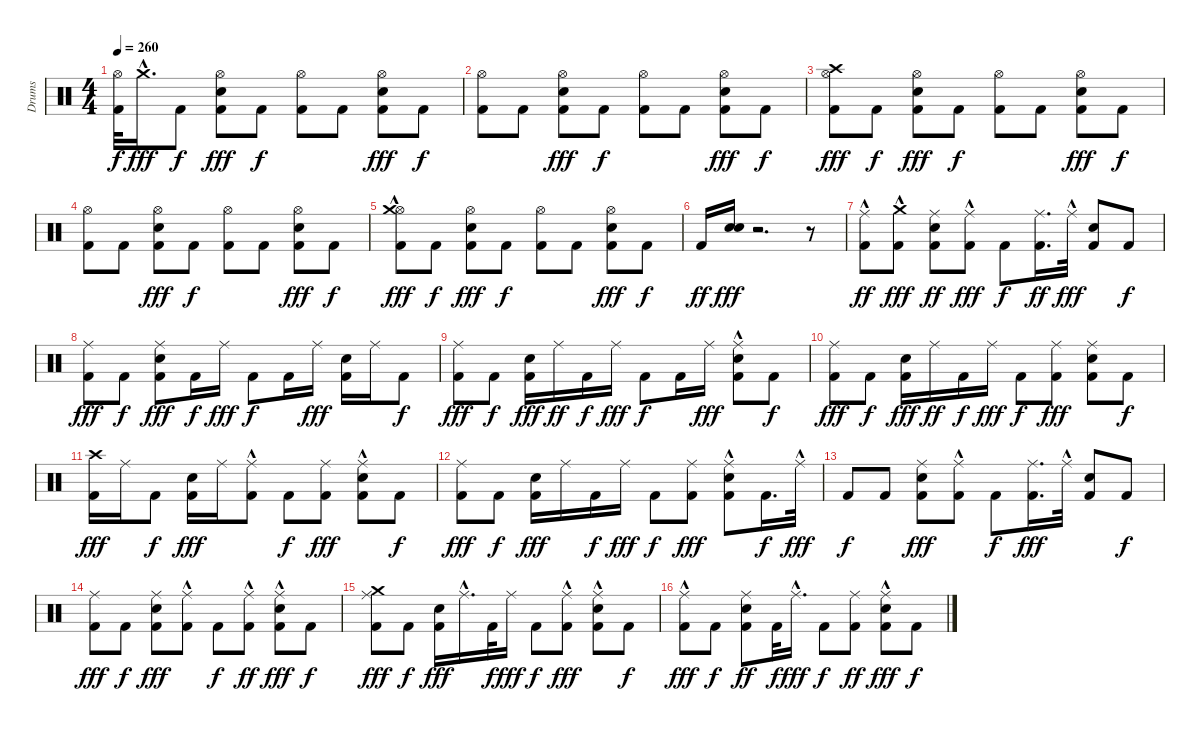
\track ("Drums" "Drums") {instrument percussion}
\staff {score}
\articulation defaults
\ts (4 4)
\tempo 260
\clef neutral
\ks c
("Hi-Hat (open)" "Kick (hit) 2").32{dy f} "Crash medium (hit)"{hac}.16{d dy fff} "Kick (hit) 2".8{dy f} ("Hi-Hat (open)" "Snare (hit) 2" "Kick (hit) 2").8{dy fff} "Kick (hit) 2".8{dy f} ("Hi-Hat (open)" "Kick (hit) 2").8 "Kick (hit) 2".8 ("Hi-Hat (open)" "Snare (hit) 2" "Kick (hit) 2").8{dy fff} "Kick (hit) 2".8{dy f} |
("Hi-Hat (open)" "Kick (hit) 2").8 "Kick (hit) 2".8 ("Hi-Hat (open)" "Snare (hit) 2" "Kick (hit) 2").8{dy fff} "Kick (hit) 2".8{dy f} ("Hi-Hat (open)" "Kick (hit) 2").8 "Kick (hit) 2".8 ("Hi-Hat (open)" "Snare (hit) 2" "Kick (hit) 2").8{dy fff} "Kick (hit) 2".8{dy f} |
("Hi-Hat (open)" "Kick (hit) 2" "Crash high (hit)").8{dy fff} "Kick (hit) 2".8{dy f} ("Hi-Hat (open)" "Snare (hit) 2" "Kick (hit) 2").8{dy fff} "Kick (hit) 2".8{dy f} ("Hi-Hat (open)" "Kick (hit) 2").8 "Kick (hit) 2".8 ("Hi-Hat (open)" "Snare (hit) 2" "Kick (hit) 2").8{dy fff} "Kick (hit) 2".8{dy f} |
("Hi-Hat (open)" "Kick (hit) 2").8 "Kick (hit) 2".8 ("Hi-Hat (open)" "Snare (hit) 2" "Kick (hit) 2").8{dy fff} "Kick (hit) 2".8{dy f} ("Hi-Hat (open)" "Kick (hit) 2").8 "Kick (hit) 2".8 ("Hi-Hat (open)" "Snare (hit) 2" "Kick (hit) 2").8{dy fff} "Kick (hit) 2".8{dy f} |
("Hi-Hat (open)" "Kick (hit) 2" "Crash medium (hit)"{hac}).8{dy fff} "Kick (hit) 2".8{dy f} ("Hi-Hat (open)" "Snare (hit) 2" "Kick (hit) 2").8{dy fff} "Kick (hit) 2".8{dy f} ("Hi-Hat (open)" "Kick (hit) 2").8 "Kick (hit) 2".8 ("Hi-Hat (open)" "Snare (hit) 2" "Kick (hit) 2").8{dy fff} "Kick (hit) 2".8{dy f} |
"Kick (hit) 2".16{dy ff} ("Snare (hit) 2" "Electric Snare (hit)").16{dy fff} r.2{d} r.8 |
("Kick (hit) 2" "Ride (middle)"{hac}).8{dy ff} ("Kick (hit) 2" "Crash medium (hit)"{hac}).8{dy fff} ("Snare (hit) 2" "Kick (hit) 2" "Ride (middle)").8{dy ff} ("Ride (middle)"{hac} "Kick (hit) 2").8{dy fff} "Kick (hit) 2".8{dy f} ("Ride (middle)" "Kick (hit) 2").16{d dy ff} "Ride (middle)"{hac}.32{dy fff} ("Snare (hit) 2" "Kick (hit) 2").8 "Kick (hit) 2".8{dy f} |
("Ride (middle)" "Kick (hit) 2").8{dy fff} "Kick (hit) 2".8{dy f} ("Snare (hit) 2" "Kick (hit) 2" "Ride (middle)").8{dy fff} "Kick (hit) 2".16{dy f} "Ride (middle)".16{dy fff} "Kick (hit) 2".8{dy f} "Kick (hit) 2".16 "Ride (middle)".16{dy fff} ("Snare (hit) 2" "Kick (hit) 2").16 "Ride (middle)".16 "Kick (hit) 2".8{dy f} |
("Kick (hit) 2" "Ride (middle)").8{dy fff} "Kick (hit) 2".8{dy f} ("Snare (hit) 2" "Kick (hit) 2").16{dy fff} "Ride (middle)".16{dy ff} "Kick (hit) 2".16{dy f} "Ride (middle)".16{dy fff} "Kick (hit) 2".8{dy f} "Kick (hit) 2".16 "Ride (middle)".16{dy fff} ("Ride (middle)"{hac} "Snare (hit) 2" "Kick (hit) 2").8 "Kick (hit) 2".8{dy f} |
("Ride (middle)" "Kick (hit) 2").8{dy fff} "Kick (hit) 2".8{dy f} ("Snare (hit) 2" "Kick (hit) 2").16{dy fff} "Ride (middle)".16{dy ff} "Kick (hit) 2".16{dy f} "Ride (middle)".16{dy fff} "Kick (hit) 2".8{dy f} ("Ride (middle)" "Kick (hit) 2").8{dy fff} ("Snare (hit) 2" "Kick (hit) 2" "Ride (middle)").8 "Kick (hit) 2".8{dy f} |
("Kick (hit) 2" "Crash high (hit)").16{dy fff} "Ride (middle)".16 "Kick (hit) 2".8{dy f} ("Snare (hit) 2" "Kick (hit) 2").16{dy fff} "Ride (middle)".16 ("Kick (hit) 2" "Ride (middle)"{hac}).8 "Kick (hit) 2".8{dy f} ("Kick (hit) 2" "Ride (middle)").8{dy fff} ("Ride (middle)"{hac} "Snare (hit) 2" "Kick (hit) 2").8 "Kick (hit) 2".8{dy f} |
("Ride (middle)" "Kick (hit) 2").8{dy fff} "Kick (hit) 2".8{dy f} ("Snare (hit) 2" "Kick (hit) 2").16{dy fff} "Ride (middle)".16 "Kick (hit) 2".16{dy f} "Ride (middle)".16{dy fff} "Kick (hit) 2".8{dy f} ("Kick (hit) 2" "Ride (middle)").8{dy fff} ("Ride (middle)"{hac} "Snare (hit) 2" "Kick (hit) 2").8 "Kick (hit) 2".16{d dy f} "Ride (middle)"{hac}.32{dy fff} |
"Kick (hit) 2".8{dy f} "Kick (hit) 2".8 ("Ride (middle)" "Snare (hit) 2" "Kick (hit) 2").8{dy fff} ("Ride (middle)"{hac} "Kick (hit) 2").8 "Kick (hit) 2".8{dy f} ("Kick (hit) 2" "Ride (middle)").16{d dy fff} "Ride (middle)"{hac}.32 ("Snare (hit) 2" "Kick (hit) 2").8 "Kick (hit) 2".8{dy f} |
("Ride (middle)" "Kick (hit) 2").8{dy fff} "Kick (hit) 2".8{dy f} ("Snare (hit) 2" "Kick (hit) 2" "Ride (middle)").8{dy fff} ("Kick (hit) 2" "Ride (middle)"{hac}).8 "Kick (hit) 2".8{dy f} ("Ride (middle)"{hac} "Kick (hit) 2").8{dy ff} ("Ride (middle)"{hac} "Snare (hit) 2" "Kick (hit) 2").8{dy fff} "Kick (hit) 2".8{dy f} |
("Crash medium (hit)" "Kick (hit) 2" "Ride (middle)").8{dy fff} "Kick (hit) 2".8{dy f} ("Snare (hit) 2" "Kick (hit) 2").16{dy fff} "Ride (middle)"{hac}.16{d} "Kick (hit) 2".32{dy f} "Ride (middle)".16{dy fff} "Kick (hit) 2".8{dy f} ("Kick (hit) 2" "Ride (middle)"{hac}).8{dy fff} ("Snare (hit) 2" "Kick (hit) 2" "Ride (middle)"{hac}).8 "Kick (hit) 2".8{dy f} |
("Ride (middle)"{hac} "Kick (hit) 2").8{dy fff} "Kick (hit) 2".8{dy f} ("Snare (hit) 2" "Kick (hit) 2" "Ride (middle)").8{dy ff} "Kick (hit) 2".32{dy f} "Ride (middle)"{hac}.16{d dy fff} "Kick (hit) 2".8{dy f} ("Kick (hit) 2" "Ride (middle)").8{dy ff} ("Snare (hit) 2" "Kick (hit) 2" "Ride (middle)"{hac}).8{dy fff} "Kick (hit) 2".8{dy f}
